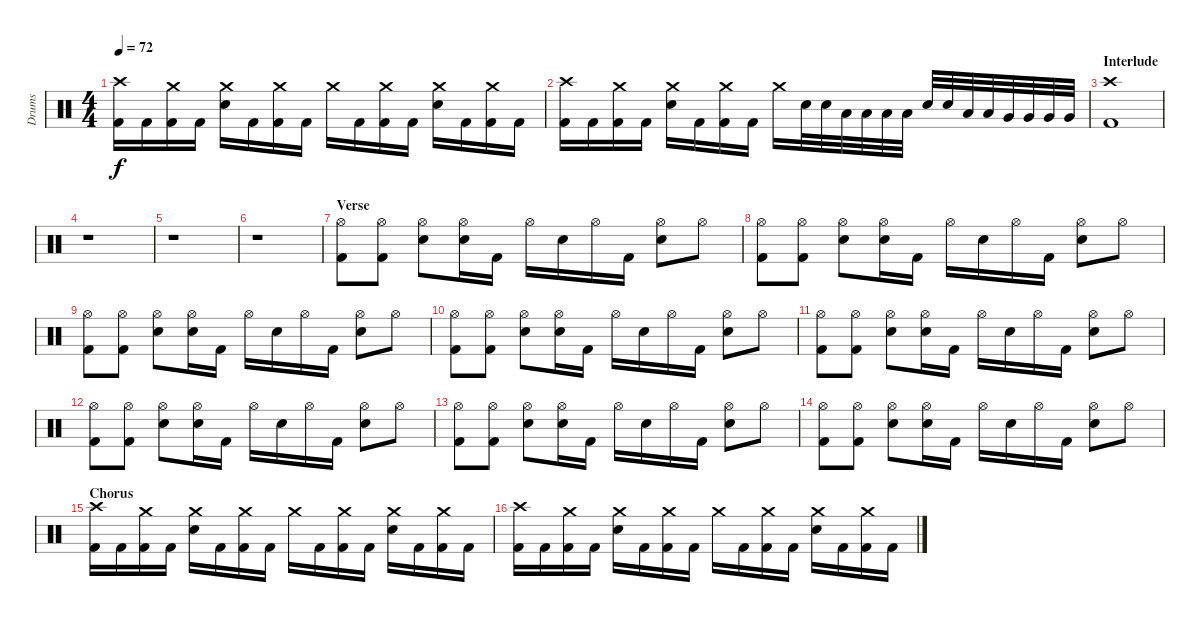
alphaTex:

\track ("Drums" "Drums") {instrument percussion}
\staff {score}
\articulation defaults
\ts (4 4)
\tempo 72
\clef neutral
\ks c
("Crash high (hit)" "Kick (hit) 2").16{dy f} "Kick (hit) 2".16 ("Kick (hit) 2" "Crash medium (hit)").16 "Kick (hit) 2".16 ("Snare (hit) 2" "Crash medium (hit)").16 "Kick (hit) 2".16 ("Kick (hit) 2" "Crash medium (hit)").16 "Kick (hit) 2".16 "Crash medium (hit)".16 "Kick (hit) 2".16 ("Kick (hit) 2" "Crash medium (hit)").16 "Kick (hit) 2".16 ("Snare (hit) 2" "Crash medium (hit)").16 "Kick (hit) 2".16 ("Kick (hit) 2" "Crash medium (hit)").16 "Kick (hit) 2".16 |
("Crash high (hit)" "Kick (hit) 2").16 "Kick (hit) 2".16 ("Kick (hit) 2" "Crash medium (hit)").16 "Kick (hit) 2".16 ("Snare (hit) 2" "Crash medium (hit)").16 "Kick (hit) 2".16 ("Kick (hit) 2" "Crash medium (hit)").16 "Kick (hit) 2".16 "Crash medium (hit)".16 "Snare (hit) 2".32 "Snare (hit) 2".32 "Low Tom (hit)".32 "Low Tom (hit)".32 "Low Tom (hit)".32 "Low Tom (hit)".32 "Snare (hit) 2".32 "Snare (hit) 2".32 "Low Tom (hit)".32 "Low Tom (hit)".32 "Very Low Tom (hit)".32 "Very Low Tom (hit)".32 "Very Low Tom (hit)".32 "Very Low Tom (hit)".32 |
\section ("" "Interlude")
("Crash high (hit)" "Kick (hit) 2").1 |
r.1 |
r.1 |
r.1 |
\section ("" "Verse")
("Hi-Hat (open)" "Kick (hit) 2").8 ("Hi-Hat (open)" "Kick (hit) 2").8 ("Hi-Hat (open)" "Snare (hit) 2").8 ("Hi-Hat (open)" "Snare (hit) 2").16 "Kick (hit) 2".16 "Hi-Hat (open)".16 "Snare (hit) 2".16 "Hi-Hat (open)".16 "Kick (hit) 2".16 ("Hi-Hat (open)" "Snare (hit) 2").8 "Hi-Hat (open)".8 |
("Hi-Hat (open)" "Kick (hit) 2").8 ("Hi-Hat (open)" "Kick (hit) 2").8 ("Hi-Hat (open)" "Snare (hit) 2").8 ("Hi-Hat (open)" "Snare (hit) 2").16 "Kick (hit) 2".16 "Hi-Hat (open)".16 "Snare (hit) 2".16 "Hi-Hat (open)".16 "Kick (hit) 2".16 ("Hi-Hat (open)" "Snare (hit) 2").8 "Hi-Hat (open)".8 |
("Hi-Hat (open)" "Kick (hit) 2").8 ("Hi-Hat (open)" "Kick (hit) 2").8 ("Hi-Hat (open)" "Snare (hit) 2").8 ("Hi-Hat (open)" "Snare (hit) 2").16 "Kick (hit) 2".16 "Hi-Hat (open)".16 "Snare (hit) 2".16 "Hi-Hat (open)".16 "Kick (hit) 2".16 ("Hi-Hat (open)" "Snare (hit) 2").8 "Hi-Hat (open)".8 |
("Hi-Hat (open)" "Kick (hit) 2").8 ("Hi-Hat (open)" "Kick (hit) 2").8 ("Hi-Hat (open)" "Snare (hit) 2").8 ("Hi-Hat (open)" "Snare (hit) 2").16 "Kick (hit) 2".16 "Hi-Hat (open)".16 "Snare (hit) 2".16 "Hi-Hat (open)".16 "Kick (hit) 2".16 ("Hi-Hat (open)" "Snare (hit) 2").8 "Hi-Hat (open)".8 |
("Hi-Hat (open)" "Kick (hit) 2").8 ("Hi-Hat (open)" "Kick (hit) 2").8 ("Hi-Hat (open)" "Snare (hit) 2").8 ("Hi-Hat (open)" "Snare (hit) 2").16 "Kick (hit) 2".16 "Hi-Hat (open)".16 "Snare (hit) 2".16 "Hi-Hat (open)".16 "Kick (hit) 2".16 ("Hi-Hat (open)" "Snare (hit) 2").8 "Hi-Hat (open)".8 |
("Hi-Hat (open)" "Kick (hit) 2").8 ("Hi-Hat (open)" "Kick (hit) 2").8 ("Hi-Hat (open)" "Snare (hit) 2").8 ("Hi-Hat (open)" "Snare (hit) 2").16 "Kick (hit) 2".16 "Hi-Hat (open)".16 "Snare (hit) 2".16 "Hi-Hat (open)".16 "Kick (hit) 2".16 ("Hi-Hat (open)" "Snare (hit) 2").8 "Hi-Hat (open)".8 |
("Hi-Hat (open)" "Kick (hit) 2").8 ("Hi-Hat (open)" "Kick (hit) 2").8 ("Hi-Hat (open)" "Snare (hit) 2").8 ("Hi-Hat (open)" "Snare (hit) 2").16 "Kick (hit) 2".16 "Hi-Hat (open)".16 "Snare (hit) 2".16 "Hi-Hat (open)".16 "Kick (hit) 2".16 ("Hi-Hat (open)" "Snare (hit) 2").8 "Hi-Hat (open)".8 |
("Hi-Hat (open)" "Kick (hit) 2").8 ("Hi-Hat (open)" "Kick (hit) 2").8 ("Hi-Hat (open)" "Snare (hit) 2").8 ("Hi-Hat (open)" "Snare (hit) 2").16 "Kick (hit) 2".16 "Hi-Hat (open)".16 "Snare (hit) 2".16 "Hi-Hat (open)".16 "Kick (hit) 2".16 ("Hi-Hat (open)" "Snare (hit) 2").8 "Hi-Hat (open)".8 |
\section ("" "Chorus")
("Crash high (hit)" "Kick (hit) 2").16 "Kick (hit) 2".16 ("Kick (hit) 2" "Crash medium (hit)").16 "Kick (hit) 2".16 ("Snare (hit) 2" "Crash medium (hit)").16 "Kick (hit) 2".16 ("Kick (hit) 2" "Crash medium (hit)").16 "Kick (hit) 2".16 "Crash medium (hit)".16 "Kick (hit) 2".16 ("Kick (hit) 2" "Crash medium (hit)").16 "Kick (hit) 2".16 ("Snare (hit) 2" "Crash medium (hit)").16 "Kick (hit) 2".16 ("Kick (hit) 2" "Crash medium (hit)").16 "Kick (hit) 2".16 |
("Crash high (hit)" "Kick (hit) 2").16 "Kick (hit) 2".16 ("Kick (hit) 2" "Crash medium (hit)").16 "Kick (hit) 2".16 ("Snare (hit) 2" "Crash medium (hit)").16 "Kick (hit) 2".16 ("Kick (hit) 2" "Crash medium (hit)").16 "Kick (hit) 2".16 "Crash medium (hit)".16 "Kick (hit) 2".16 ("Kick (hit) 2" "Crash medium (hit)").16 "Kick (hit) 2".16 ("Snare (hit) 2" "Crash medium (hit)").16 "Kick (hit) 2".16 ("Kick (hit) 2" "Crash medium (hit)").16 "Kick (hit) 2".16
